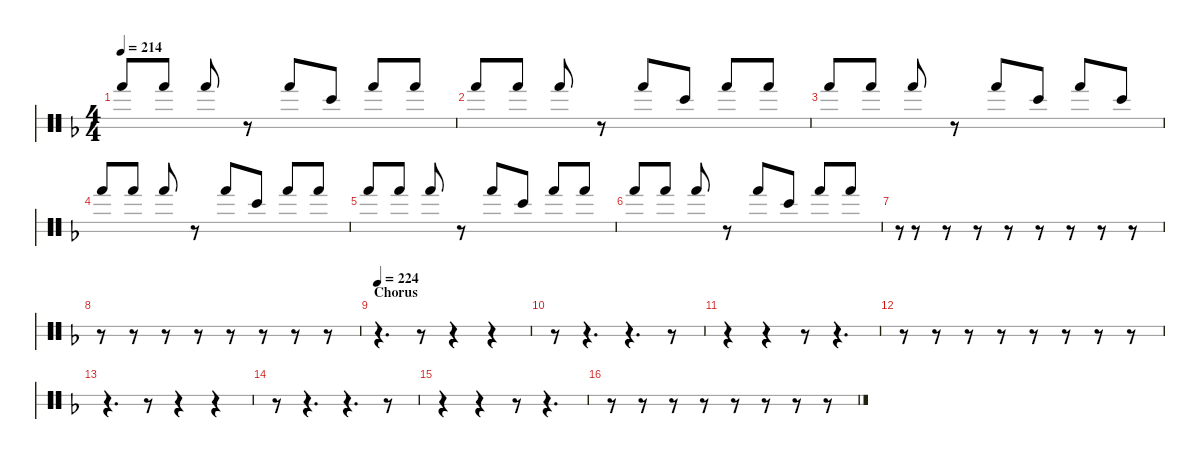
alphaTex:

\hideDynamics
\bracketExtendMode nobrackets
\singleTrackTrackNamePolicy hidden
\multiTrackTrackNamePolicy hidden
\firstSystemTrackNameMode fullname
\firstSystemTrackNameOrientation horizontal
\otherSystemsTrackNameOrientation horizontal
\track ("Bongos" "bngKit") {instrument percussion}
\staff {score 2}
\articulation defaults
\ts (4 4)
\tempo 214
\clef neutral
\ks dminor "Hand (hit)"{acc forcenatural}.8{dy p beam Up} "Hand (hit)"{acc forcenatural}.8{beam Up} "Hand (hit)"{acc forcenatural}.8{dy mp beam Up}
r.8{beam Up} "Hand (hit)"{acc forcenatural}.8{beam Up} "Bongo High (hit)"{acc forcenatural}.8{beam Up} "Hand (hit)"{acc forcenatural}.8{beam Up} "Hand (hit)"{acc forcenatural}.8{dy p beam Up} |
"Hand (hit)"{acc forcenatural}.8{beam Up} "Hand (hit)"{acc forcenatural}.8{beam Up} "Hand (hit)"{acc forcenatural}.8{dy mp beam Up} r.8{beam Up} "Hand (hit)"{acc forcenatural}.8{beam Up} "Bongo High (hit)"{acc forcenatural}.8{beam Up} "Hand (hit)"{acc forcenatural}.8{beam Up} "Hand (hit)"{acc forcenatural}.8{dy p beam Up} |
"Hand (hit)"{acc forcenatural}.8{beam Up} "Hand (hit)"{acc forcenatural}.8{beam Up} "Hand (hit)"{acc forcenatural}.8{dy mp beam Up} r.8{beam Up} "Hand (hit)"{acc forcenatural}.8{beam Up} "Bongo High (hit)"{acc forcenatural}.8{beam Up} "Hand (hit)"{acc forcenatural}.8{beam Up} "Bongo High (hit)"{acc forcenatural}.8{dy p beam Up} |
"Hand (hit)"{acc forcenatural}.8{beam Up} "Hand (hit)"{acc forcenatural}.8{beam Up} "Hand (hit)"{acc forcenatural}.8{dy mp beam Up} r.8{beam Up} "Hand (hit)"{acc forcenatural}.8{beam Up} "Bongo High (hit)"{acc forcenatural}.8{beam Up} "Hand (hit)"{acc forcenatural}.8{beam Up} "Hand (hit)"{acc forcenatural}.8{dy p beam Up} |
"Hand (hit)"{acc forcenatural}.8{beam Up} "Hand (hit)"{acc forcenatural}.8{beam Up} "Hand (hit)"{acc forcenatural}.8{dy mp beam Up} r.8{beam Up} "Hand (hit)"{acc forcenatural}.8{beam Up} "Bongo High (hit)"{acc forcenatural}.8{beam Up} "Hand (hit)"{acc forcenatural}.8{beam Up} "Hand (hit)"{acc forcenatural}.8{dy p beam Up} |
"Hand (hit)"{acc forcenatural}.8{beam Up} "Hand (hit)"{acc forcenatural}.8{beam Up} "Hand (hit)"{acc forcenatural}.8{dy mp beam Up} r.8{beam Up} "Hand (hit)"{acc forcenatural}.8{beam Up} "Bongo High (hit)"{acc forcenatural}.8{beam Up} "Hand (hit)"{acc forcenatural}.8{beam Up} "Hand (hit)"{acc forcenatural}.8{dy p beam Up} |
r.8{gr beam Up} r.8{beam Down} r.8{beam Down} r.8{beam Down} r.8{beam Down} r.8{beam Down} r.8{beam Down} r.8{beam Down} r.8{beam Down} |
r.8{beam Down} r.8{beam Down} r.8{beam Down} r.8{beam Down} r.8{beam Down} r.8{beam Down} r.8{beam Down} r.8{beam Down} |
\section ("" "Chorus")
\tempo 224
r.4{d beam Down} r.8{beam Down} r.4{beam Down} r.4{beam Down} |
r.8{beam Down} r.4{d beam Down} r.4{d beam Down} r.8{beam Down} |
r.4{beam Down} r.4{beam Down} r.8{beam Down} r.4{d beam Down} |
r.8{beam Down} r.8{beam Down} r.8{beam Down} r.8{beam Down} r.8{beam Down} r.8{beam Down} r.8{beam Down} r.8{beam Down} |
r.4{d beam Down} r.8{beam Down} r.4{beam Down} r.4{beam Down} |
r.8{beam Down} r.4{d beam Down} r.4{d beam Down} r.8{beam Down} |
r.4{beam Down} r.4{beam Down} r.8{beam Down} r.4{d beam Down} |
r.8{beam Down} r.8{beam Down} r.8{beam Down} r.8{beam Down} r.8{beam Down} r.8{beam Down} r.8{beam Down} r.8{beam Down}
